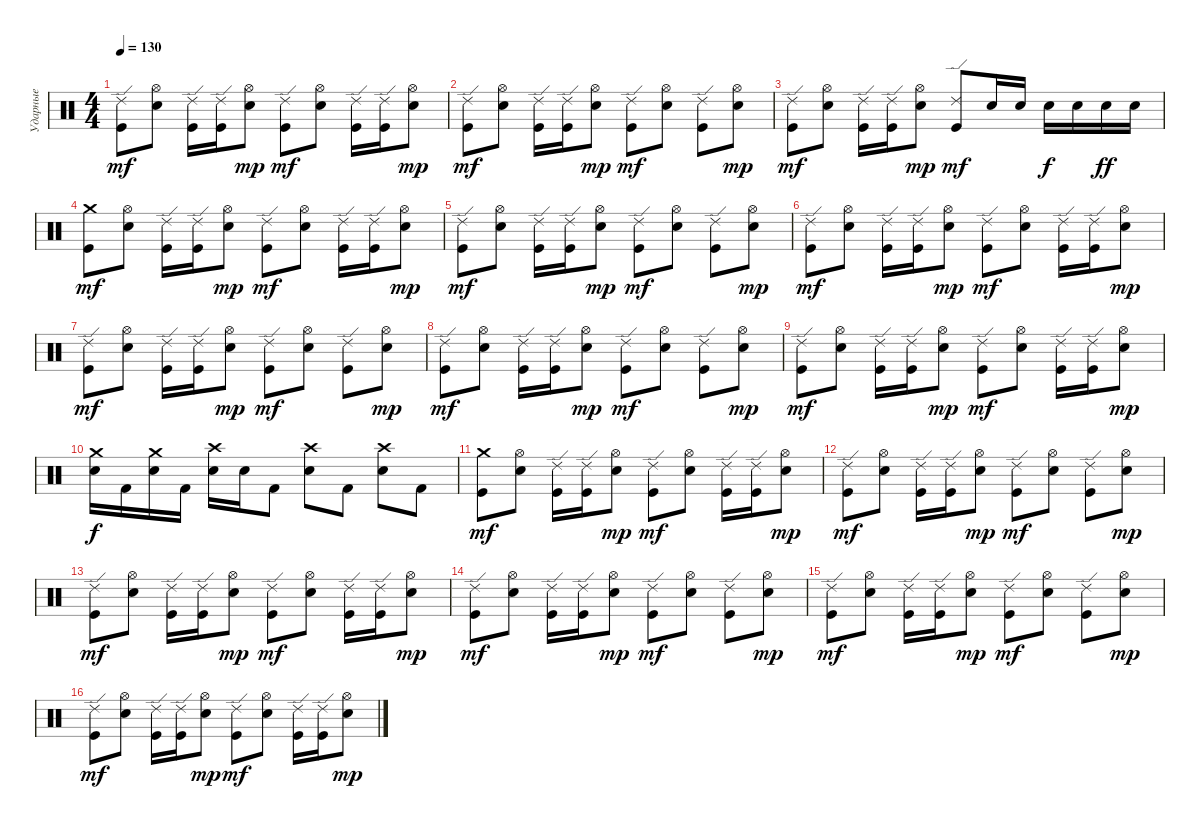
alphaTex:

\track ("Ударные" "Ударные") {instrument percussion}
\staff {score}
\articulation defaults
\ts (4 4)
\tempo 130
\clef neutral
\ks c
("Kick (hit)" "Ride (edge) 2").8{dy mf} ("Electric Snare (hit)" "Hi-Hat (open)").8 ("Kick (hit)" "Ride (edge) 2").16 ("Kick (hit)" "Ride (edge) 2").16 ("Electric Snare (hit)" "Hi-Hat (open)").8{dy mp} ("Kick (hit)" "Ride (edge) 2").8{dy mf} ("Electric Snare (hit)" "Hi-Hat (open)").8 ("Kick (hit)" "Ride (edge) 2").16 ("Kick (hit)" "Ride (edge) 2").16 ("Electric Snare (hit)" "Hi-Hat (open)").8{dy mp} |
("Kick (hit)" "Ride (edge) 2").8{dy mf} ("Electric Snare (hit)" "Hi-Hat (open)").8 ("Kick (hit)" "Ride (edge) 2").16 ("Kick (hit)" "Ride (edge) 2").16 ("Electric Snare (hit)" "Hi-Hat (open)").8{dy mp} ("Kick (hit)" "Ride (edge) 2").8{dy mf} ("Electric Snare (hit)" "Hi-Hat (open)").8 ("Kick (hit)" "Ride (edge) 2").8 ("Electric Snare (hit)" "Hi-Hat (open)").8{dy mp} |
("Kick (hit)" "Ride (edge) 2").8{dy mf} ("Electric Snare (hit)" "Hi-Hat (open)").8 ("Kick (hit)" "Ride (edge) 2").16 ("Kick (hit)" "Ride (edge) 2").16 ("Electric Snare (hit)" "Hi-Hat (open)").8{dy mp} ("Kick (hit)" "Ride (edge) 2").8{dy mf} "Electric Snare (hit)".16 "Electric Snare (hit)".16 "Electric Snare (hit)".16{dy f} "Electric Snare (hit)".16 "Electric Snare (hit)".16{dy ff} "Electric Snare (hit)".16 |
("Kick (hit)" "Crash medium (hit)").8{dy mf} ("Electric Snare (hit)" "Hi-Hat (open)").8 ("Kick (hit)" "Ride (edge) 2").16 ("Kick (hit)" "Ride (edge) 2").16 ("Electric Snare (hit)" "Hi-Hat (open)").8{dy mp} ("Kick (hit)" "Ride (edge) 2").8{dy mf} ("Electric Snare (hit)" "Hi-Hat (open)").8 ("Kick (hit)" "Ride (edge) 2").16 ("Kick (hit)" "Ride (edge) 2").16 ("Electric Snare (hit)" "Hi-Hat (open)").8{dy mp} |
("Kick (hit)" "Ride (edge) 2").8{dy mf} ("Electric Snare (hit)" "Hi-Hat (open)").8 ("Kick (hit)" "Ride (edge) 2").16 ("Kick (hit)" "Ride (edge) 2").16 ("Electric Snare (hit)" "Hi-Hat (open)").8{dy mp} ("Kick (hit)" "Ride (edge) 2").8{dy mf} ("Electric Snare (hit)" "Hi-Hat (open)").8 ("Kick (hit)" "Ride (edge) 2").8 ("Electric Snare (hit)" "Hi-Hat (open)").8{dy mp} |
("Kick (hit)" "Ride (edge) 2").8{dy mf} ("Electric Snare (hit)" "Hi-Hat (open)").8 ("Kick (hit)" "Ride (edge) 2").16 ("Kick (hit)" "Ride (edge) 2").16 ("Electric Snare (hit)" "Hi-Hat (open)").8{dy mp} ("Kick (hit)" "Ride (edge) 2").8{dy mf} ("Electric Snare (hit)" "Hi-Hat (open)").8 ("Kick (hit)" "Ride (edge) 2").16 ("Kick (hit)" "Ride (edge) 2").16 ("Electric Snare (hit)" "Hi-Hat (open)").8{dy mp} |
("Kick (hit)" "Ride (edge) 2").8{dy mf} ("Electric Snare (hit)" "Hi-Hat (open)").8 ("Kick (hit)" "Ride (edge) 2").16 ("Kick (hit)" "Ride (edge) 2").16 ("Electric Snare (hit)" "Hi-Hat (open)").8{dy mp} ("Kick (hit)" "Ride (edge) 2").8{dy mf} ("Electric Snare (hit)" "Hi-Hat (open)").8 ("Kick (hit)" "Ride (edge) 2").8 ("Electric Snare (hit)" "Hi-Hat (open)").8{dy mp} |
("Kick (hit)" "Ride (edge) 2").8{dy mf} ("Electric Snare (hit)" "Hi-Hat (open)").8 ("Kick (hit)" "Ride (edge) 2").16 ("Kick (hit)" "Ride (edge) 2").16 ("Electric Snare (hit)" "Hi-Hat (open)").8{dy mp} ("Kick (hit)" "Ride (edge) 2").8{dy mf} ("Electric Snare (hit)" "Hi-Hat (open)").8 ("Kick (hit)" "Ride (edge) 2").8 ("Electric Snare (hit)" "Hi-Hat (open)").8{dy mp} |
("Kick (hit)" "Ride (edge) 2").8{dy mf} ("Electric Snare (hit)" "Hi-Hat (open)").8 ("Kick (hit)" "Ride (edge) 2").16 ("Kick (hit)" "Ride (edge) 2").16 ("Electric Snare (hit)" "Hi-Hat (open)").8{dy mp} ("Kick (hit)" "Ride (edge) 2").8{dy mf} ("Electric Snare (hit)" "Hi-Hat (open)").8 ("Kick (hit)" "Ride (edge) 2").16 ("Kick (hit)" "Ride (edge) 2").16 ("Electric Snare (hit)" "Hi-Hat (open)").8{dy mp} |
("Crash medium (hit)" "Electric Snare (hit)").16{dy f} "Kick (hit) 2".16 ("Crash medium (hit)" "Electric Snare (hit)").16 "Kick (hit) 2".16 ("Crash high (hit)" "Electric Snare (hit)").16 "Electric Snare (hit)".16 "Kick (hit) 2".8 ("Crash high (hit)" "Electric Snare (hit)").8 "Kick (hit) 2".8 ("Crash high (hit)" "Electric Snare (hit)").8 "Kick (hit) 2".8 |
("Kick (hit)" "Crash medium (hit)").8{dy mf} ("Electric Snare (hit)" "Hi-Hat (open)").8 ("Kick (hit)" "Ride (edge) 2").16 ("Kick (hit)" "Ride (edge) 2").16 ("Electric Snare (hit)" "Hi-Hat (open)").8{dy mp} ("Kick (hit)" "Ride (edge) 2").8{dy mf} ("Electric Snare (hit)" "Hi-Hat (open)").8 ("Kick (hit)" "Ride (edge) 2").16 ("Kick (hit)" "Ride (edge) 2").16 ("Electric Snare (hit)" "Hi-Hat (open)").8{dy mp} |
("Kick (hit)" "Ride (edge) 2").8{dy mf} ("Electric Snare (hit)" "Hi-Hat (open)").8 ("Kick (hit)" "Ride (edge) 2").16 ("Kick (hit)" "Ride (edge) 2").16 ("Electric Snare (hit)" "Hi-Hat (open)").8{dy mp} ("Kick (hit)" "Ride (edge) 2").8{dy mf} ("Electric Snare (hit)" "Hi-Hat (open)").8 ("Kick (hit)" "Ride (edge) 2").8 ("Electric Snare (hit)" "Hi-Hat (open)").8{dy mp} |
("Kick (hit)" "Ride (edge) 2").8{dy mf} ("Electric Snare (hit)" "Hi-Hat (open)").8 ("Kick (hit)" "Ride (edge) 2").16 ("Kick (hit)" "Ride (edge) 2").16 ("Electric Snare (hit)" "Hi-Hat (open)").8{dy mp} ("Kick (hit)" "Ride (edge) 2").8{dy mf} ("Electric Snare (hit)" "Hi-Hat (open)").8 ("Kick (hit)" "Ride (edge) 2").16 ("Kick (hit)" "Ride (edge) 2").16 ("Electric Snare (hit)" "Hi-Hat (open)").8{dy mp} |
("Kick (hit)" "Ride (edge) 2").8{dy mf} ("Electric Snare (hit)" "Hi-Hat (open)").8 ("Kick (hit)" "Ride (edge) 2").16 ("Kick (hit)" "Ride (edge) 2").16 ("Electric Snare (hit)" "Hi-Hat (open)").8{dy mp} ("Kick (hit)" "Ride (edge) 2").8{dy mf} ("Electric Snare (hit)" "Hi-Hat (open)").8 ("Kick (hit)" "Ride (edge) 2").8 ("Electric Snare (hit)" "Hi-Hat (open)").8{dy mp} |
("Kick (hit)" "Ride (edge) 2").8{dy mf} ("Electric Snare (hit)" "Hi-Hat (open)").8 ("Kick (hit)" "Ride (edge) 2").16 ("Kick (hit)" "Ride (edge) 2").16 ("Electric Snare (hit)" "Hi-Hat (open)").8{dy mp} ("Kick (hit)" "Ride (edge) 2").8{dy mf} ("Electric Snare (hit)" "Hi-Hat (open)").8 ("Kick (hit)" "Ride (edge) 2").8 ("Electric Snare (hit)" "Hi-Hat (open)").8{dy mp} |
("Kick (hit)" "Ride (edge) 2").8{dy mf} ("Electric Snare (hit)" "Hi-Hat (open)").8 ("Kick (hit)" "Ride (edge) 2").16 ("Kick (hit)" "Ride (edge) 2").16 ("Electric Snare (hit)" "Hi-Hat (open)").8{dy mp} ("Kick (hit)" "Ride (edge) 2").8{dy mf} ("Electric Snare (hit)" "Hi-Hat (open)").8 ("Kick (hit)" "Ride (edge) 2").16 ("Kick (hit)" "Ride (edge) 2").16 ("Electric Snare (hit)" "Hi-Hat (open)").8{dy mp}
